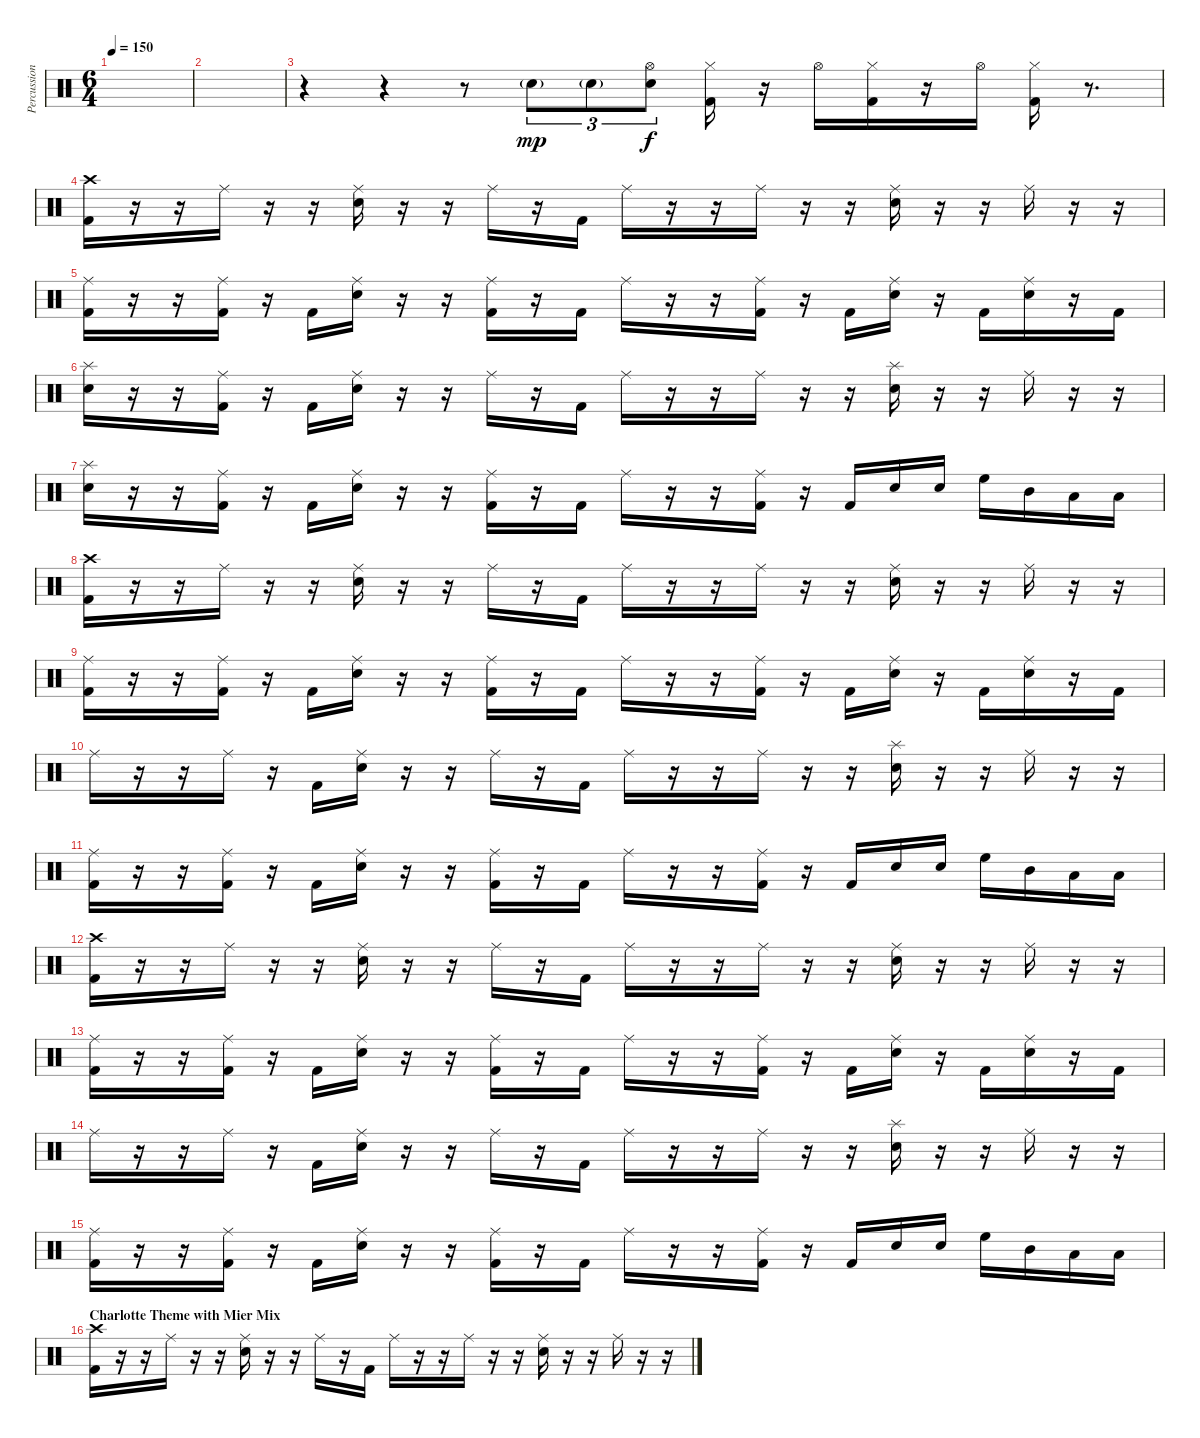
\track ("Percussion" "Percussion") {instrument percussion}
\staff {score}
\articulation defaults
\ts (6 4)
\tempo 150
\clef neutral
\ks c
|
|
r.4 r.4 r.8 "Electric Snare (hit)"{g}.8{tu (3 2) dy mp} "Electric Snare (hit)"{g}.8{tu (3 2)} ("Hi-Hat (open)" "Electric Snare (hit)").8{tu (3 2) dy f} ("Hi-Hat (closed)" "Kick (hit) 2").16 r.16 "Hi-Hat (open)".16 ("Hi-Hat (closed)" "Kick (hit) 2").16 r.16 "Hi-Hat (open)".16 ("Hi-Hat (closed)" "Kick (hit) 2").16 r.8{d} |
("Crash high (hit)" "Kick (hit) 2").16 r.16 r.16 "Ride (middle)".16 r.16 r.16 ("Ride (middle)" "Electric Snare (hit)").16 r.16 r.16 "Ride (middle)".16 r.16 "Kick (hit) 2".16 "Ride (middle)".16 r.16 r.16 "Ride (middle)".16 r.16 r.16 ("Ride (middle)" "Electric Snare (hit)").16 r.16 r.16 "Ride (middle)".16 r.16 r.16 |
("Ride (middle)" "Kick (hit) 2").16 r.16 r.16 ("Ride (middle)" "Kick (hit) 2").16 r.16 "Kick (hit) 2".16 ("Ride (middle)" "Electric Snare (hit)").16 r.16 r.16 ("Ride (middle)" "Kick (hit) 2").16 r.16 "Kick (hit) 2".16 "Ride (middle)".16 r.16 r.16 ("Ride (middle)" "Kick (hit) 2").16 r.16 "Kick (hit) 2".16 ("Ride (middle)" "Electric Snare (hit)").16 r.16 "Kick (hit) 2".16 ("Ride (middle)" "Electric Snare (hit)").16 r.16 "Kick (hit) 2".16 |
("Splash (hit)" "Electric Snare (hit)").16 r.16 r.16 ("Ride (middle)" "Kick (hit) 2").16 r.16 "Kick (hit) 2".16 ("Ride (middle)" "Electric Snare (hit)").16 r.16 r.16 "Ride (middle)".16 r.16 "Kick (hit) 2".16 "Ride (middle)".16 r.16 r.16 "Ride (middle)".16 r.16 r.16 ("Splash (hit)" "Electric Snare (hit)").16 r.16 r.16 "Ride (middle)".16 r.16 r.16 |
("Splash (hit)" "Electric Snare (hit)").16 r.16 r.16 ("Ride (middle)" "Kick (hit) 2").16 r.16 "Kick (hit) 2".16 ("Ride (middle)" "Electric Snare (hit)").16 r.16 r.16 ("Ride (middle)" "Kick (hit) 2").16 r.16 "Kick (hit) 2".16 "Ride (middle)".16 r.16 r.16 ("Ride (middle)" "Kick (hit) 2").16 r.16 "Kick (hit) 2".16 "Electric Snare (hit)".16 "Electric Snare (hit)".16 "High Floor Tom (hit)".16 "Mid Tom (hit)".16 "Low Tom (hit)".16 "Low Floor Tom (hit)".16 |
("Crash high (hit)" "Kick (hit) 2").16 r.16 r.16 "Ride (middle)".16 r.16 r.16 ("Ride (middle)" "Electric Snare (hit)").16 r.16 r.16 "Ride (middle)".16 r.16 "Kick (hit) 2".16 "Ride (middle)".16 r.16 r.16 "Ride (middle)".16 r.16 r.16 ("Ride (middle)" "Electric Snare (hit)").16 r.16 r.16 "Ride (middle)".16 r.16 r.16 |
("Ride (middle)" "Kick (hit) 2").16 r.16 r.16 ("Ride (middle)" "Kick (hit) 2").16 r.16 "Kick (hit) 2".16 ("Ride (middle)" "Electric Snare (hit)").16 r.16 r.16 ("Ride (middle)" "Kick (hit) 2").16 r.16 "Kick (hit) 2".16 "Ride (middle)".16 r.16 r.16 ("Ride (middle)" "Kick (hit) 2").16 r.16 "Kick (hit) 2".16 ("Ride (middle)" "Electric Snare (hit)").16 r.16 "Kick (hit) 2".16 ("Ride (middle)" "Electric Snare (hit)").16 r.16 "Kick (hit) 2".16 |
"Ride (middle)".16 r.16 r.16 "Ride (middle)".16 r.16 "Kick (hit) 2".16 ("Ride (middle)" "Electric Snare (hit)").16 r.16 r.16 "Ride (middle)".16 r.16 "Kick (hit) 2".16 "Ride (middle)".16 r.16 r.16 "Ride (middle)".16 r.16 r.16 ("Splash (hit)" "Electric Snare (hit)").16 r.16 r.16 "Ride (middle)".16 r.16 r.16 |
("Ride (middle)" "Kick (hit) 2").16 r.16 r.16 ("Ride (middle)" "Kick (hit) 2").16 r.16 "Kick (hit) 2".16 ("Ride (middle)" "Electric Snare (hit)").16 r.16 r.16 ("Ride (middle)" "Kick (hit) 2").16 r.16 "Kick (hit) 2".16 "Ride (middle)".16 r.16 r.16 ("Ride (middle)" "Kick (hit) 2").16 r.16 "Kick (hit) 2".16 "Electric Snare (hit)".16 "Electric Snare (hit)".16 "High Floor Tom (hit)".16 "Mid Tom (hit)".16 "Low Tom (hit)".16 "Low Floor Tom (hit)".16 |
("Crash high (hit)" "Kick (hit) 2").16 r.16 r.16 "Ride (middle)".16 r.16 r.16 ("Ride (middle)" "Electric Snare (hit)").16 r.16 r.16 "Ride (middle)".16 r.16 "Kick (hit) 2".16 "Ride (middle)".16 r.16 r.16 "Ride (middle)".16 r.16 r.16 ("Ride (middle)" "Electric Snare (hit)").16 r.16 r.16 "Ride (middle)".16 r.16 r.16 |
("Ride (middle)" "Kick (hit) 2").16 r.16 r.16 ("Ride (middle)" "Kick (hit) 2").16 r.16 "Kick (hit) 2".16 ("Ride (middle)" "Electric Snare (hit)").16 r.16 r.16 ("Ride (middle)" "Kick (hit) 2").16 r.16 "Kick (hit) 2".16 "Ride (middle)".16 r.16 r.16 ("Ride (middle)" "Kick (hit) 2").16 r.16 "Kick (hit) 2".16 ("Ride (middle)" "Electric Snare (hit)").16 r.16 "Kick (hit) 2".16 ("Ride (middle)" "Electric Snare (hit)").16 r.16 "Kick (hit) 2".16 |
"Ride (middle)".16 r.16 r.16 "Ride (middle)".16 r.16 "Kick (hit) 2".16 ("Ride (middle)" "Electric Snare (hit)").16 r.16 r.16 "Ride (middle)".16 r.16 "Kick (hit) 2".16 "Ride (middle)".16 r.16 r.16 "Ride (middle)".16 r.16 r.16 ("Splash (hit)" "Electric Snare (hit)").16 r.16 r.16 "Ride (middle)".16 r.16 r.16 |
("Ride (middle)" "Kick (hit) 2").16 r.16 r.16 ("Ride (middle)" "Kick (hit) 2").16 r.16 "Kick (hit) 2".16 ("Ride (middle)" "Electric Snare (hit)").16 r.16 r.16 ("Ride (middle)" "Kick (hit) 2").16 r.16 "Kick (hit) 2".16 "Ride (middle)".16 r.16 r.16 ("Ride (middle)" "Kick (hit) 2").16 r.16 "Kick (hit) 2".16 "Electric Snare (hit)".16 "Electric Snare (hit)".16 "High Floor Tom (hit)".16 "Mid Tom (hit)".16 "Low Tom (hit)".16 "Low Floor Tom (hit)".16 |
\section ("" "Charlotte Theme with Mier Mix")
("Crash high (hit)" "Kick (hit) 2").16 r.16 r.16 "Ride (middle)".16 r.16 r.16 ("Ride (middle)" "Electric Snare (hit)").16 r.16 r.16 "Ride (middle)".16 r.16 "Kick (hit) 2".16 "Ride (middle)".16 r.16 r.16 "Ride (middle)".16 r.16 r.16 ("Ride (middle)" "Electric Snare (hit)").16 r.16 r.16 "Ride (middle)".16 r.16 r.16
